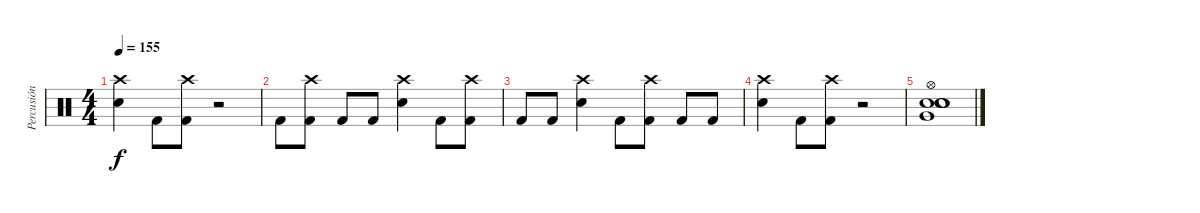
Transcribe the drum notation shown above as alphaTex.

\track ("Percusión" "Percusión") {instrument percussion}
\staff {score}
\articulation defaults
\ts (4 4)
\tempo 155
\clef neutral
\ks c
("Crash high (hit)" "Electric Snare (hit)").4{dy f} "Kick (hit) 2".8 ("Crash high (hit)" "Kick (hit) 2").8 r.2 |
"Kick (hit) 2".8 ("Crash high (hit)" "Kick (hit) 2").8 "Kick (hit) 2".8 "Kick (hit) 2".8 ("Crash high (hit)" "Electric Snare (hit)").4 "Kick (hit) 2".8 ("Crash high (hit)" "Kick (hit) 2").8 |
"Kick (hit) 2".8 "Kick (hit) 2".8 ("Crash high (hit)" "Electric Snare (hit)").4 "Kick (hit) 2".8 ("Crash high (hit)" "Kick (hit) 2").8 "Kick (hit) 2".8 "Kick (hit) 2".8 |
("Crash high (hit)" "Electric Snare (hit)").4 "Kick (hit) 2".8 ("Crash high (hit)" "Kick (hit) 2").8 r.2 |
("Snare (hit)" "Snare (hit)" "Snare (hit)" "Hi-Hat (open)" "Snare (hit)" "Very Low Tom (hit)").1
